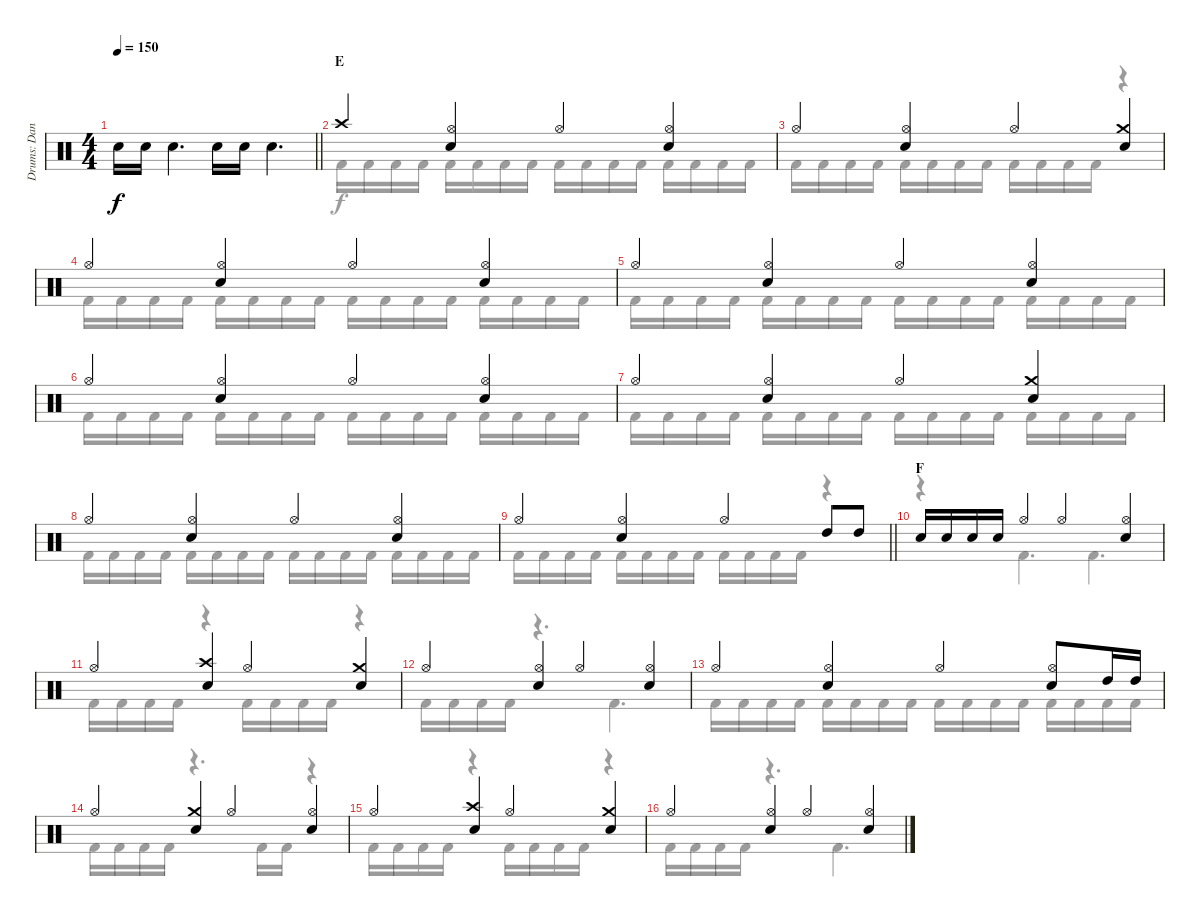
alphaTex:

\track ("Drums: Dana" "Drums: Dan") {instrument percussion}
\staff {score}
\articulation defaults
\voice
\ts (4 4)
\tempo 150
\clef neutral
\barLineRight lightlight
\ks c "Snare (hit) 2".16{dy f} "Snare (hit) 2".16 "Snare (hit) 2".4{d} "Snare (hit) 2".16 "Snare (hit) 2".16 "Snare (hit) 2".4{d}
|
\section ("" "E")
"Crash high (hit)".4 ("Hi-Hat (open)" "Snare (hit) 2").4 "Hi-Hat (open)".4 ("Hi-Hat (open)" "Snare (hit) 2").4 |
"Hi-Hat (open)".4 ("Hi-Hat (open)" "Snare (hit) 2").4 "Hi-Hat (open)".4 ("Crash medium (hit)" "Snare (hit) 2").4 |
"Hi-Hat (open)".4 ("Hi-Hat (open)" "Snare (hit) 2").4 "Hi-Hat (open)".4 ("Hi-Hat (open)" "Snare (hit) 2").4 |
"Hi-Hat (open)".4 ("Hi-Hat (open)" "Snare (hit) 2").4 "Hi-Hat (open)".4 ("Hi-Hat (open)" "Snare (hit) 2").4 |
"Hi-Hat (open)".4 ("Hi-Hat (open)" "Snare (hit) 2").4 "Hi-Hat (open)".4 ("Hi-Hat (open)" "Snare (hit) 2").4 |
"Hi-Hat (open)".4 ("Hi-Hat (open)" "Snare (hit) 2").4 "Hi-Hat (open)".4 ("Crash medium (hit)" "Snare (hit) 2").4 |
"Hi-Hat (open)".4 ("Hi-Hat (open)" "Snare (hit) 2").4 "Hi-Hat (open)".4 ("Hi-Hat (open)" "Snare (hit) 2").4 |
\barLineRight lightlight "Hi-Hat (open)".4
("Hi-Hat (open)" "Snare (hit) 2").4 "Hi-Hat (open)".4 "High Tom (hit)".8 "High Tom (hit)".8 |
\section ("" "F")
"Snare (hit) 2".16 "Snare (hit) 2".16 "Snare (hit) 2".16 "Snare (hit) 2".16 "Hi-Hat (open)".4 "Hi-Hat (open)".4 ("Hi-Hat (open)" "Snare (hit) 2").4 |
"Hi-Hat (open)".4 ("Crash high (hit)" "Snare (hit) 2").4 "Hi-Hat (open)".4 ("Crash medium (hit)" "Snare (hit) 2").4 |
"Hi-Hat (open)".4 ("Hi-Hat (open)" "Snare (hit) 2").4 "Hi-Hat (open)".4 ("Hi-Hat (open)" "Snare (hit) 2").4 |
"Hi-Hat (open)".4 ("Hi-Hat (open)" "Snare (hit) 2").4 "Hi-Hat (open)".4 ("Hi-Hat (open)" "Snare (hit) 2").8 "High Tom (hit)".16 "High Tom (hit)".16 |
"Hi-Hat (open)".4 ("Crash medium (hit)" "Snare (hit) 2").4 "Hi-Hat (open)".4 ("Hi-Hat (open)" "Snare (hit) 2").4 |
"Hi-Hat (open)".4 ("Crash high (hit)" "Snare (hit) 2").4 "Hi-Hat (open)".4 ("Crash medium (hit)" "Snare (hit) 2").4 |
"Hi-Hat (open)".4 ("Hi-Hat (open)" "Snare (hit) 2").4 "Hi-Hat (open)".4 ("Hi-Hat (open)" "Snare (hit) 2").4
\voice
\clef neutral
\ottava regular
\simile none
\barLineRight lightlight
\ks c
|
"Kick (hit) 2".16 "Kick (hit) 2".16 "Kick (hit) 2".16 "Kick (hit) 2".16 "Kick (hit) 2".16 "Kick (hit) 2".16 "Kick (hit) 2".16 "Kick (hit) 2".16 "Kick (hit) 2".16 "Kick (hit) 2".16 "Kick (hit) 2".16 "Kick (hit) 2".16 "Kick (hit) 2".16 "Kick (hit) 2".16 "Kick (hit) 2".16 "Kick (hit) 2".16 |
"Kick (hit) 2".16 "Kick (hit) 2".16 "Kick (hit) 2".16 "Kick (hit) 2".16 "Kick (hit) 2".16 "Kick (hit) 2".16 "Kick (hit) 2".16 "Kick (hit) 2".16 "Kick (hit) 2".16 "Kick (hit) 2".16 "Kick (hit) 2".16 "Kick (hit) 2".16 r.4 |
"Kick (hit) 2".16 "Kick (hit) 2".16 "Kick (hit) 2".16 "Kick (hit) 2".16 "Kick (hit) 2".16 "Kick (hit) 2".16 "Kick (hit) 2".16 "Kick (hit) 2".16 "Kick (hit) 2".16 "Kick (hit) 2".16 "Kick (hit) 2".16 "Kick (hit) 2".16 "Kick (hit) 2".16 "Kick (hit) 2".16 "Kick (hit) 2".16 "Kick (hit) 2".16 |
"Kick (hit) 2".16 "Kick (hit) 2".16 "Kick (hit) 2".16 "Kick (hit) 2".16 "Kick (hit) 2".16 "Kick (hit) 2".16 "Kick (hit) 2".16 "Kick (hit) 2".16 "Kick (hit) 2".16 "Kick (hit) 2".16 "Kick (hit) 2".16 "Kick (hit) 2".16 "Kick (hit) 2".16 "Kick (hit) 2".16 "Kick (hit) 2".16 "Kick (hit) 2".16 |
"Kick (hit) 2".16 "Kick (hit) 2".16 "Kick (hit) 2".16 "Kick (hit) 2".16 "Kick (hit) 2".16 "Kick (hit) 2".16 "Kick (hit) 2".16 "Kick (hit) 2".16 "Kick (hit) 2".16 "Kick (hit) 2".16 "Kick (hit) 2".16 "Kick (hit) 2".16 "Kick (hit) 2".16 "Kick (hit) 2".16 "Kick (hit) 2".16 "Kick (hit) 2".16 |
"Kick (hit) 2".16 "Kick (hit) 2".16 "Kick (hit) 2".16 "Kick (hit) 2".16 "Kick (hit) 2".16 "Kick (hit) 2".16 "Kick (hit) 2".16 "Kick (hit) 2".16 "Kick (hit) 2".16 "Kick (hit) 2".16 "Kick (hit) 2".16 "Kick (hit) 2".16 "Kick (hit) 2".16 "Kick (hit) 2".16 "Kick (hit) 2".16 "Kick (hit) 2".16 |
"Kick (hit) 2".16 "Kick (hit) 2".16 "Kick (hit) 2".16 "Kick (hit) 2".16 "Kick (hit) 2".16 "Kick (hit) 2".16 "Kick (hit) 2".16 "Kick (hit) 2".16 "Kick (hit) 2".16 "Kick (hit) 2".16 "Kick (hit) 2".16 "Kick (hit) 2".16 "Kick (hit) 2".16 "Kick (hit) 2".16 "Kick (hit) 2".16 "Kick (hit) 2".16 |
\barLineRight lightlight "Kick (hit) 2".16 "Kick (hit) 2".16 "Kick (hit) 2".16 "Kick (hit) 2".16 "Kick (hit) 2".16 "Kick (hit) 2".16 "Kick (hit) 2".16 "Kick (hit) 2".16 "Kick (hit) 2".16 "Kick (hit) 2".16 "Kick (hit) 2".16 "Kick (hit) 2".16
r.4 |
r.4 "Kick (hit) 2".4{d} "Kick (hit) 2".4{d} |
"Kick (hit) 2".16 "Kick (hit) 2".16 "Kick (hit) 2".16 "Kick (hit) 2".16 r.4 "Kick (hit) 2".16 "Kick (hit) 2".16 "Kick (hit) 2".16 "Kick (hit) 2".16 r.4 |
"Kick (hit) 2".16 "Kick (hit) 2".16 "Kick (hit) 2".16 "Kick (hit) 2".16 r.4{d} "Kick (hit) 2".4{d} |
"Kick (hit) 2".16 "Kick (hit) 2".16 "Kick (hit) 2".16 "Kick (hit) 2".16 "Kick (hit) 2".16 "Kick (hit) 2".16 "Kick (hit) 2".16 "Kick (hit) 2".16 "Kick (hit) 2".16 "Kick (hit) 2".16 "Kick (hit) 2".16 "Kick (hit) 2".16 "Kick (hit) 2".16 "Kick (hit) 2".16 "Kick (hit) 2".16 "Kick (hit) 2".16 |
"Kick (hit) 2".16 "Kick (hit) 2".16 "Kick (hit) 2".16 "Kick (hit) 2".16 r.4{d} "Kick (hit) 2".16 "Kick (hit) 2".16 r.4 |
"Kick (hit) 2".16 "Kick (hit) 2".16 "Kick (hit) 2".16 "Kick (hit) 2".16 r.4 "Kick (hit) 2".16 "Kick (hit) 2".16 "Kick (hit) 2".16 "Kick (hit) 2".16 r.4 |
"Kick (hit) 2".16 "Kick (hit) 2".16 "Kick (hit) 2".16 "Kick (hit) 2".16 r.4{d} "Kick (hit) 2".4{d}
